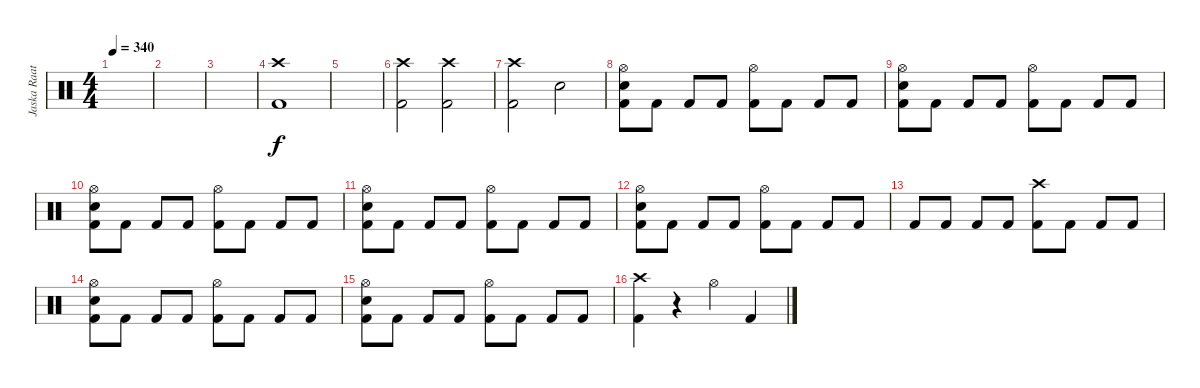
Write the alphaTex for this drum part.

\track ("Jaska Raatkinen" "Jaska Raat") {instrument percussion}
\staff {score}
\articulation defaults
\ts (4 4)
\tempo 340
\clef neutral
\ks c
|
|
|
("Crash high (hit)" "Kick (hit) 2").1 |
|
("Crash high (hit)" "Kick (hit) 2").2 ("Crash high (hit)" "Kick (hit) 2").2 |
("Crash high (hit)" "Kick (hit) 2").2 "Snare (hit) 2".2 |
("Hi-Hat (open)" "Snare (hit) 2" "Kick (hit) 2").8 "Kick (hit) 2".8 "Kick (hit) 2".8 "Kick (hit) 2".8 ("Hi-Hat (open)" "Kick (hit) 2").8 "Kick (hit) 2".8 "Kick (hit) 2".8 "Kick (hit) 2".8 |
("Hi-Hat (open)" "Snare (hit) 2" "Kick (hit) 2").8 "Kick (hit) 2".8 "Kick (hit) 2".8 "Kick (hit) 2".8 ("Hi-Hat (open)" "Kick (hit) 2").8 "Kick (hit) 2".8 "Kick (hit) 2".8 "Kick (hit) 2".8 |
("Hi-Hat (open)" "Snare (hit) 2" "Kick (hit) 2").8 "Kick (hit) 2".8 "Kick (hit) 2".8 "Kick (hit) 2".8 ("Hi-Hat (open)" "Kick (hit) 2").8 "Kick (hit) 2".8 "Kick (hit) 2".8 "Kick (hit) 2".8 |
("Hi-Hat (open)" "Snare (hit) 2" "Kick (hit) 2").8 "Kick (hit) 2".8 "Kick (hit) 2".8 "Kick (hit) 2".8 ("Hi-Hat (open)" "Kick (hit) 2").8 "Kick (hit) 2".8 "Kick (hit) 2".8 "Kick (hit) 2".8 |
("Hi-Hat (open)" "Snare (hit) 2" "Kick (hit) 2").8 "Kick (hit) 2".8 "Kick (hit) 2".8 "Kick (hit) 2".8 ("Hi-Hat (open)" "Kick (hit) 2").8 "Kick (hit) 2".8 "Kick (hit) 2".8 "Kick (hit) 2".8 |
"Kick (hit) 2".8 "Kick (hit) 2".8 "Kick (hit) 2".8 "Kick (hit) 2".8 ("Crash high (hit)" "Kick (hit) 2").8 "Kick (hit) 2".8 "Kick (hit) 2".8 "Kick (hit) 2".8 |
("Hi-Hat (open)" "Snare (hit) 2" "Kick (hit) 2").8 "Kick (hit) 2".8 "Kick (hit) 2".8 "Kick (hit) 2".8 ("Hi-Hat (open)" "Kick (hit) 2").8 "Kick (hit) 2".8 "Kick (hit) 2".8 "Kick (hit) 2".8 |
("Hi-Hat (open)" "Snare (hit) 2" "Kick (hit) 2").8 "Kick (hit) 2".8 "Kick (hit) 2".8 "Kick (hit) 2".8 ("Hi-Hat (open)" "Kick (hit) 2").8 "Kick (hit) 2".8 "Kick (hit) 2".8 "Kick (hit) 2".8 |
("Crash high (hit)" "Kick (hit) 2").4 r.4 "Hi-Hat (open)".4 "Kick (hit) 2".4
